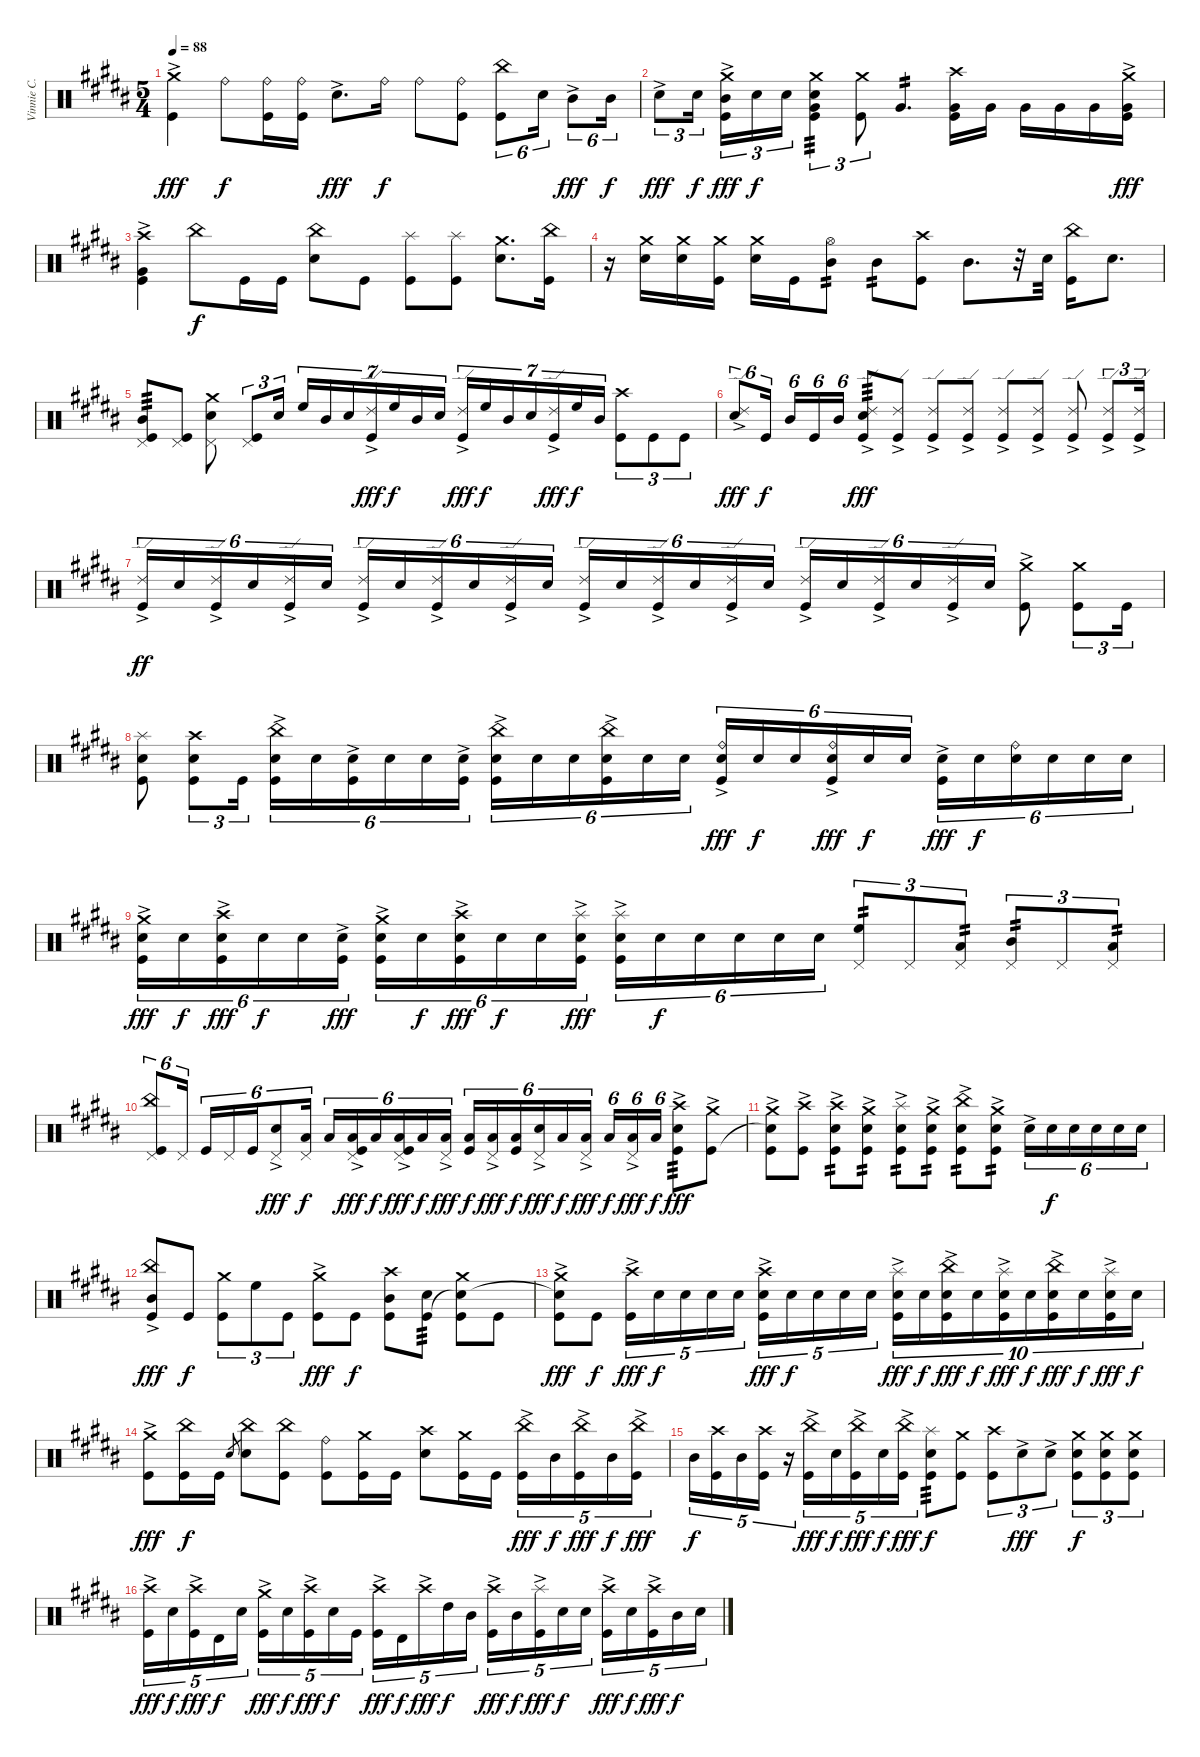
\track ("Vinnie C." "Vinnie C.") {instrument percussion}
\staff {score}
\articulation defaults
\ts (5 4)
\tempo 88
\clef neutral
\ks b
("Crash medium (hit)"{ac} "Kick (hit)").4{dy fff} "Ride (bell)".8{dy f} ("Ride (bell)" "Kick (hit)").16 ("Ride (bell)" "Kick (hit)").16 "Electric Snare (hit)"{ac}.8{d dy fff} "Ride (bell)".16{dy f} "Ride (bell)".8 ("Ride (bell)" "Kick (hit)").8 ("China (hit)" "Kick (hit)").8{tu (6 4)} "Electric Snare (hit)".16{tu (6 4)} "Mid Tom (hit)"{ac}.8{tu (6 4) dy fff} "Mid Tom (hit)".16{tu (6 4) dy f} |
"Electric Snare (hit)"{ac}.8{tu (3 2) dy fff} "Electric Snare (hit)".16{tu (3 2) dy f} ("Crash medium (hit)"{ac} "Mid Tom (hit)" "Kick (hit)").16{tu (3 2) dy fff} "Electric Snare (hit)".16{tu (3 2) dy f} "Electric Snare (hit)".16{tu (3 2)} ("Crash medium (hit)" "Very Low Tom (hit)" "Electric Snare (hit)" "Kick (hit)").4{tu (3 2) tp 3} ("Crash medium (hit)" "Kick (hit)").8{tu (3 2)} "Very Low Tom (hit)".4{d tp 2} ("Crash high (hit)" "Very Low Tom (hit)" "Kick (hit)").16 "Very Low Tom (hit)".16 "Very Low Tom (hit)".16 "Very Low Tom (hit)".16 "Very Low Tom (hit)".16 ("Crash medium (hit)"{ac} "Very Low Tom (hit)" "Kick (hit)").16{dy fff} |
("Crash high (hit)"{ac} "Very Low Tom (hit)" "Kick (hit)").4 "China (hit)".8{dy f} "Kick (hit)".16 "Kick (hit)".16 ("China (hit)" "Electric Snare (hit)").8 "Kick (hit)".8 ("Splash (hit)" "Kick (hit)").8 ("Splash (hit)" "Kick (hit)").8 ("Crash medium (hit)" "Electric Snare (hit)").8{d} ("China (hit)" "Kick (hit)").16 |
r.16 ("Crash medium (hit)" "Electric Snare (hit)").16 ("Crash medium (hit)" "Electric Snare (hit)").16 ("Crash medium (hit)" "Kick (hit)").16 ("Crash medium (hit)" "Electric Snare (hit)").16 "Kick (hit)".16 ("Hi-Hat (open)" "Mid Tom (hit)").8{tp 2} "Mid Tom (hit)".8{tp 2} ("Crash high (hit)" "Kick (hit)").8 "Mid Tom (hit)".8{d} r.32 "Electric Snare (hit)".32 ("China (hit)" "Kick (hit)").16 "Electric Snare (hit)".8{d} |
("Pedal Hi-Hat (hit)" "Mid Tom (hit)" "Kick (hit)").8{tp 3} ("Pedal Hi-Hat (hit)" "Kick (hit)").8 ("Pedal Hi-Hat (hit)" "Crash medium (hit)" "Electric Snare (hit)").8 ("Pedal Hi-Hat (hit)" "Kick (hit)").8{tu (3 2)} "Electric Snare (hit)".16{tu (3 2)} "High Floor Tom (hit)".16{tu (7 4)} "Mid Tom (hit)".16{tu (7 4)} "Electric Snare (hit)".16{tu (7 4)} ("Ride (edge) 2"{ac} "Kick (hit)").16{tu (7 4) dy fff} "High Floor Tom (hit)".16{tu (7 4) dy f} "Mid Tom (hit)".16{tu (7 4)} "Electric Snare (hit)".16{tu (7 4)} ("Ride (edge) 2"{ac} "Kick (hit)").16{tu (7 4) dy fff} "High Floor Tom (hit)".16{tu (7 4) dy f} "Mid Tom (hit)".16{tu (7 4)} "Electric Snare (hit)".16{tu (7 4)} ("Ride (edge) 2"{ac} "Kick (hit)").16{tu (7 4) dy fff} "High Floor Tom (hit)".16{tu (7 4) dy f} "Mid Tom (hit)".16{tu (7 4)} ("Crash high (hit)" "Kick (hit)").8{tu (3 2)} "Kick (hit)".8{tu (3 2)} "Kick (hit)".8{tu (3 2)} |
("Ride (edge) 2"{ac} "Electric Snare (hit)").8{tu (6 4) dy fff} "Kick (hit)".16{tu (6 4) dy f} "Mid Tom (hit)".16{tu (6 4)} "Kick (hit)".16{tu (6 4)} "Mid Tom (hit)".16{tu (6 4)} ("Ride (edge) 2"{ac} "Electric Snare (hit)" "Kick (hit)").8{tp 3 dy fff} ("Ride (edge) 2"{ac} "Kick (hit)").8 ("Ride (edge) 2"{ac} "Kick (hit)").8 ("Ride (edge) 2"{ac} "Kick (hit)").8 ("Ride (edge) 2"{ac} "Kick (hit)").8 ("Ride (edge) 2"{ac} "Kick (hit)").8 ("Ride (edge) 2"{ac} "Kick (hit)").8 ("Ride (edge) 2"{ac} "Kick (hit)").8{tu (3 2)} ("Ride (edge) 2"{ac} "Kick (hit)").16{tu (3 2)} |
("Ride (edge) 2"{ac} "Kick (hit)").16{tu (6 4) dy ff} "Electric Snare (hit)".16{tu (6 4)} ("Ride (edge) 2"{ac} "Kick (hit)").16{tu (6 4)} "Electric Snare (hit)".16{tu (6 4)} ("Ride (edge) 2"{ac} "Kick (hit)").16{tu (6 4)} "Electric Snare (hit)".16{tu (6 4)} ("Ride (edge) 2"{ac} "Kick (hit)").16{tu (6 4)} "Electric Snare (hit)".16{tu (6 4)} ("Ride (edge) 2"{ac} "Kick (hit)").16{tu (6 4)} "Electric Snare (hit)".16{tu (6 4)} ("Ride (edge) 2"{ac} "Kick (hit)").16{tu (6 4)} "Electric Snare (hit)".16{tu (6 4)} ("Ride (edge) 2"{ac} "Kick (hit)").16{tu (6 4)} "Electric Snare (hit)".16{tu (6 4)} ("Ride (edge) 2"{ac} "Kick (hit)").16{tu (6 4)} "Electric Snare (hit)".16{tu (6 4)} ("Ride (edge) 2"{ac} "Kick (hit)").16{tu (6 4)} "Electric Snare (hit)".16{tu (6 4)} ("Ride (edge) 2"{ac} "Kick (hit)").16{tu (6 4)} "Electric Snare (hit)".16{tu (6 4)} ("Ride (edge) 2"{ac} "Kick (hit)").16{tu (6 4)} "Electric Snare (hit)".16{tu (6 4)} ("Ride (edge) 2"{ac} "Kick (hit)").16{tu (6 4)} "Electric Snare (hit)".16{tu (6 4)} ("Crash medium (hit)"{ac} "Kick (hit)").8 ("Crash medium (hit)" "Kick (hit)").8{tu (3 2)} "Kick (hit)".16{tu (3 2)} |
("Splash (hit)" "Electric Snare (hit)" "Kick (hit)").8 ("Crash high (hit)" "Electric Snare (hit)" "Kick (hit)").8{tu (3 2)} "Kick (hit)".16{tu (3 2)} ("China (hit)"{ac} "Electric Snare (hit)" "Kick (hit)").16{tu (6 4)} "Electric Snare (hit)".16{tu (6 4)} ("Electric Snare (hit)"{ac} "Kick (hit)").16{tu (6 4)} "Electric Snare (hit)".16{tu (6 4)} "Electric Snare (hit)".16{tu (6 4)} ("Electric Snare (hit)"{ac} "Kick (hit)").16{tu (6 4)} ("China (hit)"{ac} "Electric Snare (hit)" "Kick (hit)").16{tu (6 4)} "Electric Snare (hit)".16{tu (6 4)} "Electric Snare (hit)".16{tu (6 4)} ("China (hit)"{ac} "Electric Snare (hit)" "Kick (hit)").16{tu (6 4)} "Electric Snare (hit)".16{tu (6 4)} "Electric Snare (hit)".16{tu (6 4)} ("Ride (bell)"{ac} "Electric Snare (hit)" "Kick (hit)").16{tu (6 4) dy fff} "Electric Snare (hit)".16{tu (6 4) dy f} "Electric Snare (hit)".16{tu (6 4)} ("Ride (bell)"{ac} "Electric Snare (hit)" "Kick (hit)").16{tu (6 4) dy fff} "Electric Snare (hit)".16{tu (6 4) dy f} "Electric Snare (hit)".16{tu (6 4)} ("Electric Snare (hit)"{ac} "Kick (hit)").16{tu (6 4) dy fff} "Electric Snare (hit)".16{tu (6 4) dy f} ("Ride (bell)" "Electric Snare (hit)").16{tu (6 4)} "Electric Snare (hit)".16{tu (6 4)} "Electric Snare (hit)".16{tu (6 4)} "Electric Snare (hit)".16{tu (6 4)} |
("Crash medium (hit)"{ac} "Electric Snare (hit)" "Kick (hit)").16{tu (6 4) dy fff} "Electric Snare (hit)".16{tu (6 4) dy f} ("Crash high (hit)"{ac} "Electric Snare (hit)" "Kick (hit)").16{tu (6 4) dy fff} "Electric Snare (hit)".16{tu (6 4) dy f} "Electric Snare (hit)".16{tu (6 4)} ("Electric Snare (hit)"{ac} "Kick (hit)").16{tu (6 4) dy fff} ("Crash medium (hit)"{ac} "Electric Snare (hit)" "Kick (hit)").16{tu (6 4)} "Electric Snare (hit)".16{tu (6 4) dy f} ("Crash high (hit)"{ac} "Electric Snare (hit)" "Kick (hit)"{x}).16{tu (6 4) dy fff} "Electric Snare (hit)".16{tu (6 4) dy f} "Electric Snare (hit)".16{tu (6 4)} ("Splash (hit)"{ac} "Electric Snare (hit)" "Kick (hit)"{x}).16{tu (6 4) dy fff} ("Splash (hit)"{ac} "Electric Snare (hit)" "Kick (hit)").16{tu (6 4)} "Electric Snare (hit)".16{tu (6 4) dy f} "Electric Snare (hit)".16{tu (6 4)} "Electric Snare (hit)".16{tu (6 4)} "Electric Snare (hit)".16{tu (6 4)} "Electric Snare (hit)".16{tu (6 4)} ("Pedal Hi-Hat (hit)" "High Floor Tom (hit)").8{tu (3 2) tp 2} "Pedal Hi-Hat (hit)".8{tu (3 2)} ("Pedal Hi-Hat (hit)" "Low Tom (hit)").8{tu (3 2) tp 2} ("Pedal Hi-Hat (hit)" "Mid Tom (hit)").8{tu (3 2) tp 2} "Pedal Hi-Hat (hit)".8{tu (3 2)} ("Pedal Hi-Hat (hit)" "Low Tom (hit)").8{tu (3 2) tp 2} |
("Pedal Hi-Hat (hit)" "China (hit)" "Kick (hit)").8{tu (6 4)} "Pedal Hi-Hat (hit)".16{tu (6 4)} "Kick (hit)".16{tu (6 4)} "Pedal Hi-Hat (hit)".16{tu (6 4)} "Kick (hit)".16{tu (6 4)} ("Pedal Hi-Hat (hit)"{ac} "Electric Snare (hit)").8{tu (6 4) dy fff} ("Pedal Hi-Hat (hit)" "Low Tom (hit)").16{tu (6 4) dy f} "Low Tom (hit)".16{tu (6 4)} ("Pedal Hi-Hat (hit)"{ac} "Low Tom (hit)" "Kick (hit)").16{tu (6 4) dy fff} "Low Tom (hit)".16{tu (6 4) dy f} ("Pedal Hi-Hat (hit)"{ac} "Low Tom (hit)" "Kick (hit)").16{tu (6 4) dy fff} "Low Tom (hit)".16{tu (6 4) dy f} ("Pedal Hi-Hat (hit)"{ac} "Low Tom (hit)").16{tu (6 4) dy fff} ("Low Tom (hit)" "Kick (hit)").16{tu (6 4) dy f} ("Pedal Hi-Hat (hit)"{ac} "Low Tom (hit)").16{tu (6 4) dy fff} ("Low Tom (hit)" "Kick (hit)").16{tu (6 4) dy f} ("Pedal Hi-Hat (hit)"{ac} "Electric Snare (hit)").16{tu (6 4) dy fff} "Low Tom (hit)".16{tu (6 4) dy f} ("Pedal Hi-Hat (hit)"{ac} "Low Tom (hit)").16{tu (6 4) dy fff} "Low Tom (hit)".16{tu (6 4) dy f} ("Pedal Hi-Hat (hit)"{ac} "Low Tom (hit)").16{tu (6 4) dy fff} "Low Tom (hit)".16{tu (6 4) dy f} ("Crash high (hit)"{ac} "Electric Snare (hit)" "Kick (hit)").8{tp 3 dy fff} ("Crash medium (hit)"{ac} "Kick (hit)").8 |
("Crash medium (hit)"{ac} "Electric Snare (hit)"{t} "Kick (hit)").8 ("Crash high (hit)"{ac} "Kick (hit)").8 ("Crash high (hit)"{ac} "Electric Snare (hit)"{ac} "Kick (hit)").8{tp 2} ("Crash medium (hit)"{ac} "Electric Snare (hit)"{ac} "Kick (hit)").8{tp 2} ("Splash (hit)"{ac} "Electric Snare (hit)"{ac} "Kick (hit)").8{tp 2} ("Crash medium (hit)"{ac} "Electric Snare (hit)"{ac} "Kick (hit)").8{tp 2} ("China (hit)"{ac} "Electric Snare (hit)"{ac} "Kick (hit)").8{tp 2} ("Crash medium (hit)"{ac} "Electric Snare (hit)"{ac} "Kick (hit)").8{tp 2} "Electric Snare (hit)"{ac}.16{tu (6 4)} "Electric Snare (hit)".16{tu (6 4) dy f} "Electric Snare (hit)".16{tu (6 4)} "Electric Snare (hit)".16{tu (6 4)} "Electric Snare (hit)".16{tu (6 4)} "Electric Snare (hit)".16{tu (6 4)} |
("China (hit)"{ac} "Mid Tom (hit)" "Kick (hit)").8{dy fff} "Kick (hit)".8{dy f} ("Crash medium (hit)" "Kick (hit)").8{tu (3 2)} "High Floor Tom (hit)".8{tu (3 2)} "Kick (hit)".8{tu (3 2)} ("Crash medium (hit)"{ac} "Kick (hit)").8{dy fff} "Kick (hit)".8{dy f} ("Crash high (hit)" "Mid Tom (hit)" "Kick (hit)").8 ("Electric Snare (hit)" "Kick (hit)").8{tp 3} ("Crash medium (hit)" "Electric Snare (hit)"{t} "Kick (hit)").8 "Kick (hit)".8 |
("Crash medium (hit)"{ac} "Electric Snare (hit)"{t} "Kick (hit)").8{dy fff} "Kick (hit)".8{dy f} ("Crash high (hit)"{ac} "Kick (hit)").16{tu (5 4) dy fff} "Electric Snare (hit)".16{tu (5 4) dy f} "Electric Snare (hit)".16{tu (5 4)} "Electric Snare (hit)".16{tu (5 4)} "Electric Snare (hit)".16{tu (5 4)} ("Crash high (hit)"{ac} "Electric Snare (hit)" "Kick (hit)").16{tu (5 4) dy fff} "Electric Snare (hit)".16{tu (5 4) dy f} "Electric Snare (hit)".16{tu (5 4)} "Electric Snare (hit)".16{tu (5 4)} "Electric Snare (hit)".16{tu (5 4)} ("Splash (hit)"{ac} "Electric Snare (hit)" "Kick (hit)").16{tu (10 8) dy fff} "Electric Snare (hit)".16{tu (10 8) dy f} ("China (hit)"{ac} "Electric Snare (hit)" "Kick (hit)").16{tu (10 8) dy fff} "Electric Snare (hit)".16{tu (10 8) dy f} ("Splash (hit)"{ac} "Electric Snare (hit)" "Kick (hit)").16{tu (10 8) dy fff} "Electric Snare (hit)".16{tu (10 8) dy f} ("China (hit)"{ac} "Electric Snare (hit)" "Kick (hit)").16{tu (10 8) dy fff} "Electric Snare (hit)".16{tu (10 8) dy f} ("Splash (hit)"{ac} "Electric Snare (hit)" "Kick (hit)").16{tu (10 8) dy fff} "Electric Snare (hit)".16{tu (10 8) dy f} |
("Crash medium (hit)"{ac} "Kick (hit)").8{dy fff} ("China (hit)" "Kick (hit)").16{dy f} "Kick (hit)".16 "Electric Snare (hit)".8{gr} ("China (hit)" "Electric Snare (hit)").8 ("China (hit)" "Kick (hit)").8 ("Ride (bell)" "Kick (hit)").8 ("Crash medium (hit)" "Kick (hit)").16 "Kick (hit)".16 ("Crash high (hit)" "Electric Snare (hit)").8 ("Crash medium (hit)" "Kick (hit)").16 "Kick (hit)".16 ("China (hit)"{ac} "Kick (hit)").16{tu (5 4) dy fff} "Mid Tom (hit)".16{tu (5 4) dy f} ("China (hit)"{ac} "Kick (hit)").16{tu (5 4) dy fff} "Mid Tom (hit)".16{tu (5 4) dy f} ("China (hit)"{ac} "Kick (hit)").16{tu (5 4) dy fff} |
"Mid Tom (hit)".16{tu (5 4) dy f} ("Crash high (hit)" "Kick (hit)").16{tu (5 4)} "Mid Tom (hit)".16{tu (5 4)} ("Crash high (hit)" "Kick (hit)").16{tu (5 4)} r.16{tu (5 4)} ("China (hit)"{ac} "Kick (hit)").16{tu (5 4) dy fff} "Electric Snare (hit)".16{tu (5 4) dy f} ("China (hit)"{ac} "Kick (hit)").16{tu (5 4) dy fff} "Electric Snare (hit)".16{tu (5 4) dy f} ("China (hit)"{ac} "Kick (hit)").16{tu (5 4) dy fff} ("Splash (hit)" "Electric Snare (hit)" "Kick (hit)").8{tp 3 dy f} ("Crash medium (hit)" "Kick (hit)").8 ("Crash high (hit)" "Kick (hit)").8{tu (3 2)} "Electric Snare (hit)"{ac}.8{tu (3 2) dy fff} "Electric Snare (hit)"{ac}.8{tu (3 2)} ("Crash medium (hit)" "Electric Snare (hit)" "Kick (hit)").8{tu (3 2) dy f} ("Crash medium (hit)" "Electric Snare (hit)" "Kick (hit)").8{tu (3 2)} ("Crash medium (hit)" "Electric Snare (hit)" "Kick (hit)").8{tu (3 2)} |
("Crash high (hit)"{ac} "Kick (hit)").16{tu (5 4) dy fff} "Electric Snare (hit)".16{tu (5 4) dy f} ("Crash high (hit)"{ac} "Kick (hit)").16{tu (5 4) dy fff} "Timbale high (hit)".16{tu (5 4) dy f} "Electric Snare (hit)".16{tu (5 4)} ("Crash medium (hit)"{ac} "Kick (hit)").16{tu (5 4) dy fff} "Electric Snare (hit)".16{tu (5 4) dy f} ("Crash high (hit)"{ac} "Kick (hit)").16{tu (5 4) dy fff} "Electric Snare (hit)".16{tu (5 4) dy f} "Kick (hit)".16{tu (5 4)} ("Crash high (hit)"{ac} "Kick (hit)").16{tu (5 4) dy fff} "Timbale high (hit)".16{tu (5 4) dy f} "Crash high (hit)"{ac}.16{tu (5 4) dy fff} "High Tom (hit)".16{tu (5 4) dy f} "Mid Tom (hit)".16{tu (5 4)} ("Crash high (hit)"{ac} "Kick (hit)").16{tu (5 4) dy fff} "Mid Tom (hit)".16{tu (5 4) dy f} ("Splash (hit)"{ac} "Kick (hit)").16{tu (5 4) dy fff} "Electric Snare (hit)".16{tu (5 4) dy f} "Electric Snare (hit)".16{tu (5 4)} ("Crash high (hit)"{ac} "Kick (hit)").16{tu (5 4) dy fff} "Electric Snare (hit)".16{tu (5 4) dy f} ("Crash high (hit)"{ac} "Kick (hit)").16{tu (5 4) dy fff} "Mid Tom (hit)".16{tu (5 4) dy f} "Electric Snare (hit)".16{tu (5 4)}
